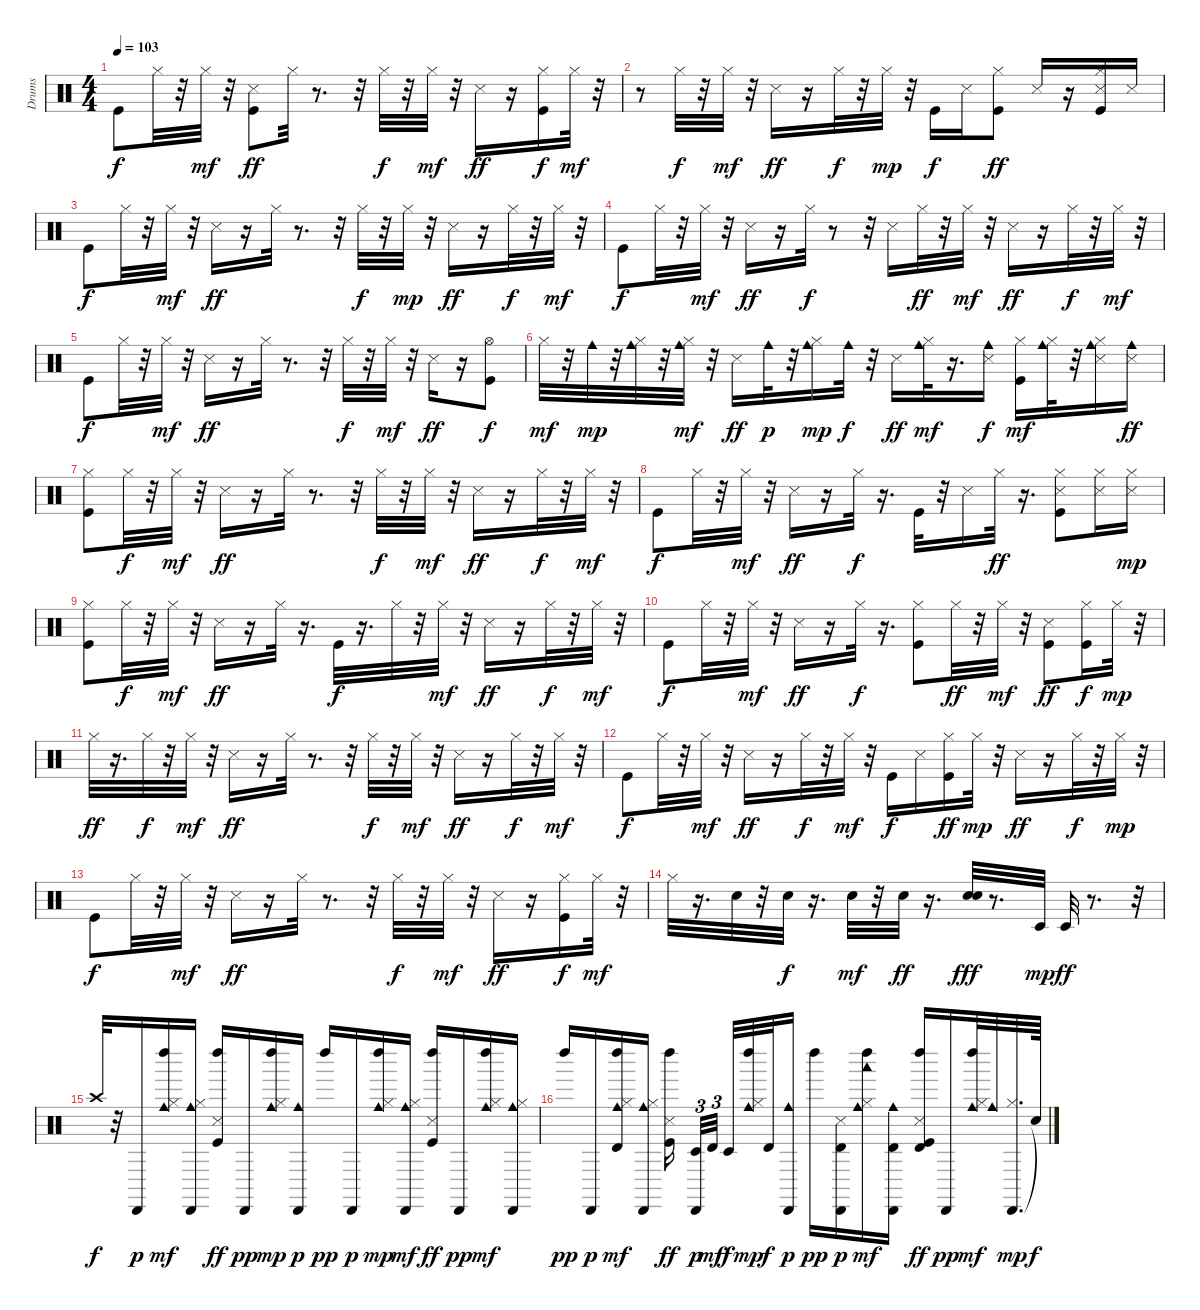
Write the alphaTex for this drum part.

\track ("Drums" "Drums") {instrument percussion}
\staff {score}
\articulation defaults
\ts (4 4)
\tempo 103
\clef neutral
\ks c "Kick (hit)".8{dy f} "Hi-Hat (closed)".32
r.32 "Hi-Hat (closed)".32{dy mf} r.32 ("Kick (hit)" "Snare (side stick) 3").8{dy ff} "Hi-Hat (closed)".32 r.8{d} r.32 "Hi-Hat (closed)".32{dy f} r.32 "Hi-Hat (closed)".32{dy mf} r.32 "Snare (side stick) 3".16{dy ff} r.16 ("Kick (hit)" "Hi-Hat (closed)").16{dy f} "Hi-Hat (closed)".32{dy mf} r.32 |
r.8 "Hi-Hat (closed)".32{dy f} r.32 "Hi-Hat (closed)".32{dy mf} r.32 "Snare (side stick) 3".16{dy ff} r.16 "Hi-Hat (closed)".32{dy f} r.32 "Hi-Hat (closed)".32{dy mp} r.32 "Kick (hit)".16{dy f} "Snare (side stick) 3".16 ("Kick (hit)" "Hi-Hat (closed)").8{dy ff} "Snare (side stick) 3".16 r.16 ("Kick (hit)" "Snare (side stick) 3" "Hi-Hat (closed)").16 "Snare (side stick) 3".16 |
"Kick (hit)".8{dy f} "Hi-Hat (closed)".32 r.32 "Hi-Hat (closed)".32{dy mf} r.32 "Snare (side stick) 3".16{dy ff} r.16 "Hi-Hat (closed)".32 r.8{d} r.32 "Hi-Hat (closed)".32{dy f} r.32 "Hi-Hat (closed)".32{dy mp} r.32 "Snare (side stick) 3".16{dy ff} r.16 "Hi-Hat (closed)".32{dy f} r.32 "Hi-Hat (closed)".32{dy mf} r.32 |
"Kick (hit)".8{dy f} "Hi-Hat (closed)".32 r.32 "Hi-Hat (closed)".32{dy mf} r.32 "Snare (side stick) 3".16{dy ff} r.16 "Hi-Hat (closed)".32{dy f} r.8 r.32 "Snare (side stick) 3".16 "Hi-Hat (closed)".32{dy ff} r.32 "Hi-Hat (closed)".32{dy mf} r.32 "Snare (side stick) 3".16{dy ff} r.16 "Hi-Hat (closed)".32{dy f} r.32 "Hi-Hat (closed)".32{dy mf} r.32 |
"Kick (hit)".8{dy f} "Hi-Hat (closed)".32 r.32 "Hi-Hat (closed)".32{dy mf} r.32 "Snare (side stick) 3".16{dy ff} r.16 "Hi-Hat (closed)".32 r.8{d} r.32 "Hi-Hat (closed)".32{dy f} r.32 "Hi-Hat (closed)".32{dy mf} r.32 "Snare (side stick) 3".16{dy ff} r.16 ("Hi-Hat (open)" "Kick (hit)").8{dy f} |
"Hi-Hat (closed)".32{dy mf} r.32 "Cowbell medium (hit)".32{dy mp} r.32 ("Cowbell medium (hit)" "Hi-Hat (closed)").32 r.32 ("Cowbell medium (hit)" "Hi-Hat (closed)").32{dy mf} r.32 "Snare (side stick) 3".16{dy ff} "Cowbell medium (hit)".32{dy p} r.32 ("Cowbell medium (hit)" "Hi-Hat (closed)").16{dy mp} "Cowbell medium (hit)".32{dy f} r.32 "Snare (side stick) 3".16{dy ff} ("Cowbell medium (hit)" "Hi-Hat (closed)").32{dy mf} r.16{d} ("Cowbell medium (hit)" "Snare (side stick) 3").16{dy f} ("Kick (hit)" "Hi-Hat (closed)").16{dy mf} ("Cowbell medium (hit)" "Hi-Hat (closed)").32 r.32 ("Snare (side stick) 3" "Hi-Hat (closed)" "Cowbell medium (hit)").16 ("Cowbell medium (hit)" "Snare (side stick) 3").16{dy ff} |
("Kick (hit)" "Hi-Hat (closed)").8 "Hi-Hat (closed)".32{dy f} r.32 "Hi-Hat (closed)".32{dy mf} r.32 "Snare (side stick) 3".16{dy ff} r.16 "Hi-Hat (closed)".32 r.8{d} r.32 "Hi-Hat (closed)".32{dy f} r.32 "Hi-Hat (closed)".32{dy mf} r.32 "Snare (side stick) 3".16{dy ff} r.16 "Hi-Hat (closed)".32{dy f} r.32 "Hi-Hat (closed)".32{dy mf} r.32 |
"Kick (hit)".8{dy f} "Hi-Hat (closed)".32 r.32 "Hi-Hat (closed)".32{dy mf} r.32 "Snare (side stick) 3".16{dy ff} r.16 "Hi-Hat (closed)".32{dy f} r.16{d} "Kick (hit)".32 r.32 "Snare (side stick) 3".16 "Hi-Hat (closed)".32{dy ff} r.16{d} ("Kick (hit)" "Snare (side stick) 3" "Hi-Hat (closed)").8 ("Snare (side stick) 3" "Hi-Hat (closed)").16 ("Hi-Hat (closed)" "Snare (side stick) 3").16{dy mp} |
("Kick (hit)" "Hi-Hat (closed)").8 "Hi-Hat (closed)".32{dy f} r.32 "Hi-Hat (closed)".32{dy mf} r.32 "Snare (side stick) 3".16{dy ff} r.16 "Hi-Hat (closed)".32 r.16{d} "Kick (hit)".32{dy f} r.16{d} "Hi-Hat (closed)".32 r.32 "Hi-Hat (closed)".32{dy mf} r.32 "Snare (side stick) 3".16{dy ff} r.16 "Hi-Hat (closed)".32{dy f} r.32 "Hi-Hat (closed)".32{dy mf} r.32 |
"Kick (hit)".8{dy f} "Hi-Hat (closed)".32 r.32 "Hi-Hat (closed)".32{dy mf} r.32 "Snare (side stick) 3".16{dy ff} r.16 "Hi-Hat (closed)".32{dy f} r.16{d} ("Kick (hit)" "Hi-Hat (closed)").8 "Hi-Hat (closed)".32{dy ff} r.32 "Hi-Hat (closed)".32{dy mf} r.32 ("Kick (hit)" "Snare (side stick) 3").8{dy ff} ("Kick (hit)" "Hi-Hat (closed)").16{dy f} "Hi-Hat (closed)".32{dy mp} r.32 |
"Hi-Hat (closed)".32{dy ff} r.16{d} "Hi-Hat (closed)".32{dy f} r.32 "Hi-Hat (closed)".32{dy mf} r.32 "Snare (side stick) 3".16{dy ff} r.16 "Hi-Hat (closed)".32 r.8{d} r.32 "Hi-Hat (closed)".32{dy f} r.32 "Hi-Hat (closed)".32{dy mf} r.32 "Snare (side stick) 3".16{dy ff} r.16 "Hi-Hat (closed)".32{dy f} r.32 "Hi-Hat (closed)".32{dy mf} r.32 |
"Kick (hit)".8{dy f} "Hi-Hat (closed)".32 r.32 "Hi-Hat (closed)".32{dy mf} r.32 "Snare (side stick) 3".16{dy ff} r.16 "Hi-Hat (closed)".32{dy f} r.32 "Hi-Hat (closed)".32{dy mf} r.32 "Kick (hit)".16{dy f} "Snare (side stick) 3".16 ("Kick (hit)" "Hi-Hat (closed)").16{dy ff} "Hi-Hat (closed)".32{dy mp} r.32 "Snare (side stick) 3".16{dy ff} r.16 "Hi-Hat (closed)".32{dy f} r.32 "Hi-Hat (closed)".32{dy mp} r.32 |
"Kick (hit)".8{dy f} "Hi-Hat (closed)".32 r.32 "Hi-Hat (closed)".32{dy mf} r.32 "Snare (side stick) 3".16{dy ff} r.16 "Hi-Hat (closed)".32 r.8{d} r.32 "Hi-Hat (closed)".32{dy f} r.32 "Hi-Hat (closed)".32{dy mf} r.32 "Snare (side stick) 3".16{dy ff} r.16 ("Kick (hit)" "Hi-Hat (closed)").16{dy f} "Hi-Hat (closed)".32{dy mf} r.32 |
"Hi-Hat (closed)".32 r.16{d} "Electric Snare (hit)".32 r.32 "Electric Snare (hit)".32{dy f} r.16{d} "Electric Snare (hit)".32{dy mf} r.32 "Electric Snare (hit)".32{dy ff} r.16{d} ("Electric Snare (hit)" "Electric Snare (hit)").32{dy fff} r.8{d} "Timbale low (hit)".32{dy mp} "Timbale low (hit)".32{dy ff} r.8{d} r.32 |
"Crash high (hit)".32{dy f} r.32 "Cabasa (hit)".16{dy p} ("Left Maraca (hit)" "Hi-Hat (closed)" "Cowbell medium (hit)").16{dy mf} ("Cowbell medium (hit)" "Cabasa (hit)" "Hi-Hat (closed)").16 ("Left Maraca (hit)" "Kick (hit)" "Snare (side stick) 3").16{dy ff} "Cabasa (hit)".16{dy pp} ("Left Maraca (hit)" "Hi-Hat (closed)" "Cowbell medium (hit)").16{dy mp} ("Cowbell medium (hit)" "Cabasa (hit)").16{dy p} "Left Maraca (hit)".16{dy pp} "Cabasa (hit)".16{dy p} ("Left Maraca (hit)" "Hi-Hat (closed)" "Cowbell medium (hit)").16{dy mp} ("Cowbell medium (hit)" "Cabasa (hit)" "Hi-Hat (closed)").16{dy mf} ("Left Maraca (hit)" "Kick (hit)" "Snare (side stick) 3").16{dy ff} "Cabasa (hit)".16{dy pp} ("Left Maraca (hit)" "Hi-Hat (closed)" "Cowbell medium (hit)").16{dy mf} ("Cowbell medium (hit)" "Cabasa (hit)" "Hi-Hat (closed)").16 |
"Left Maraca (hit)".16{dy pp} "Cabasa (hit)".16{dy p} ("Timbale high (hit)" "Left Maraca (hit)" "Hi-Hat (closed)" "Cowbell medium (hit)").16{dy mf} ("Cowbell medium (hit)" "Cabasa (hit)" "Hi-Hat (closed)").16 ("Left Maraca (hit)" "Kick (hit)" "Snare (side stick) 3").16{dy ff beam splitsecondary} ("Cabasa (hit)" "Timbale low (hit)").32{tu (3 2) dy p} "Timbale high (hit)".32{tu (3 2) dy mf beam splitsecondary} "Timbale low (hit)".32{dy f} ("Left Maraca (hit)" "Hi-Hat (closed)" "Cowbell medium (hit)").32{dy mp} "Timbale high (hit)".32{dy f} ("Cowbell medium (hit)" "Cabasa (hit)").16{dy p} "Left Maraca (hit)".16{dy pp} ("Timbale high (hit)" "Cabasa (hit)" "Snare (side stick) 3").16{dy p} ("Left Maraca (hit)" "Hi-Hat (closed)" "Cowbell medium (hit)" "Woodblock low (hit)").16{dy mf} ("Cowbell medium (hit)" "Cabasa (hit)" "Timbale high (hit)").16 ("Timbale high (hit)" "Left Maraca (hit)" "Kick (hit)" "Snare (side stick) 3").16{dy ff} "Cabasa (hit)".16{dy pp} ("Left Maraca (hit)" "Hi-Hat (closed)" "Cowbell medium (hit)").32{dy mf} "Cowbell medium (hit)".32 ("Cabasa (hit)" "Hi-Hat (closed)").32{d dy mp} "Snare (hit)"{t}.64{dy f}
